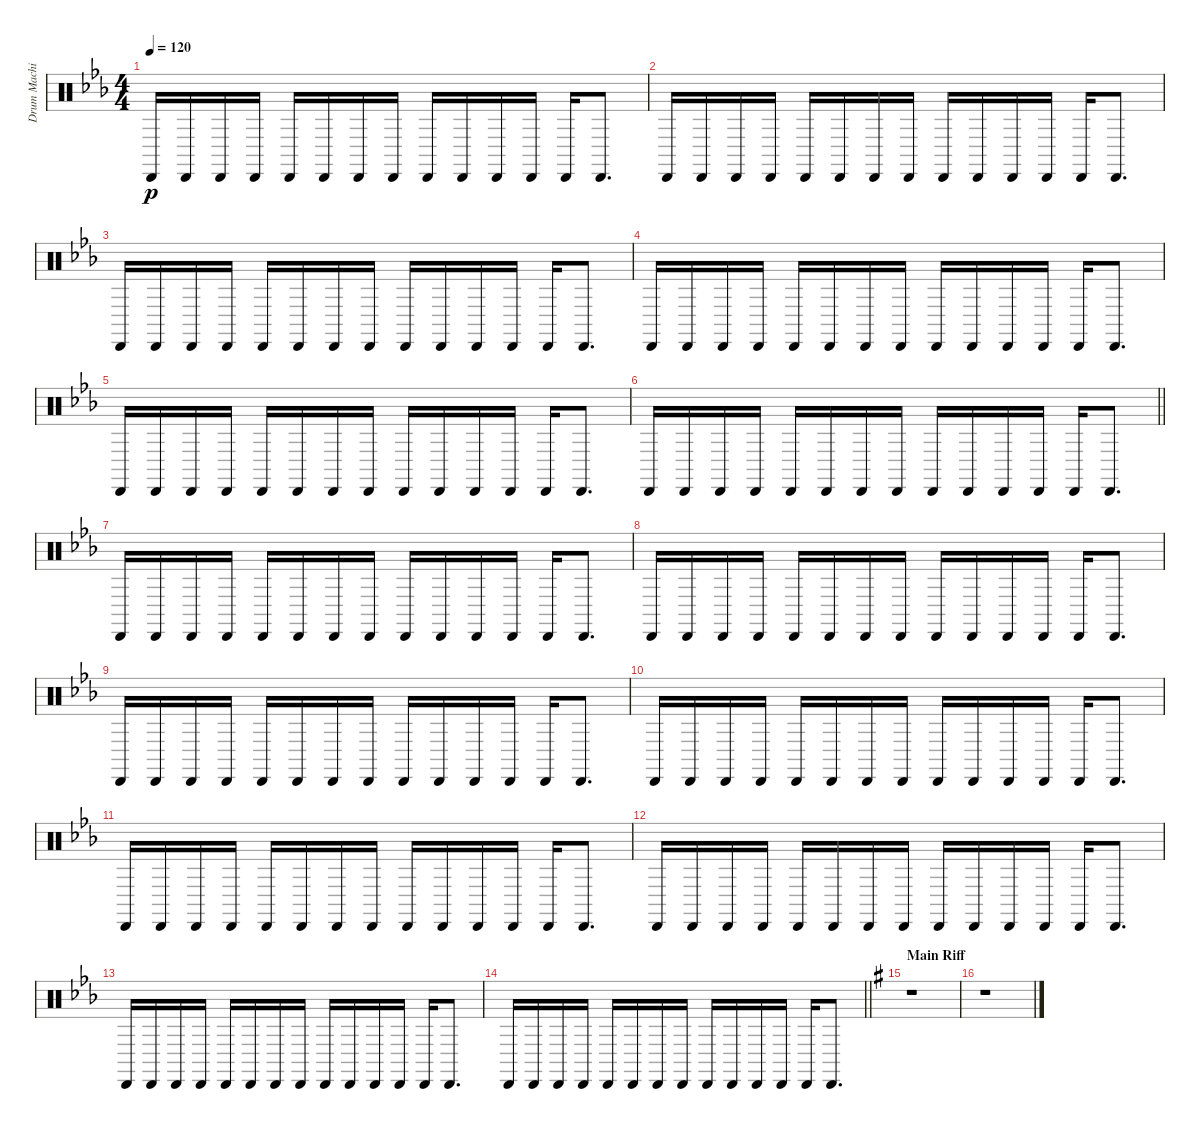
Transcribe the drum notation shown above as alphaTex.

\track ("Drum Machine" "Drum Machi") {instrument percussion}
\staff {score}
\articulation defaults
\ts (4 4)
\tempo 120
\clef neutral
\ks eb "Cabasa (hit)".16{dy p} "Cabasa (hit)".16 "Cabasa (hit)".16 "Cabasa (hit)".16 "Cabasa (hit)".16 "Cabasa (hit)".16 "Cabasa (hit)".16 "Cabasa (hit)".16 "Cabasa (hit)".16 "Cabasa (hit)".16 "Cabasa (hit)".16 "Cabasa (hit)".16 "Cabasa (hit)".16 "Cabasa (hit)".8{d}
|
"Cabasa (hit)".16 "Cabasa (hit)".16 "Cabasa (hit)".16 "Cabasa (hit)".16 "Cabasa (hit)".16 "Cabasa (hit)".16 "Cabasa (hit)".16 "Cabasa (hit)".16 "Cabasa (hit)".16 "Cabasa (hit)".16 "Cabasa (hit)".16 "Cabasa (hit)".16 "Cabasa (hit)".16 "Cabasa (hit)".8{d} |
"Cabasa (hit)".16 "Cabasa (hit)".16 "Cabasa (hit)".16 "Cabasa (hit)".16 "Cabasa (hit)".16 "Cabasa (hit)".16 "Cabasa (hit)".16 "Cabasa (hit)".16 "Cabasa (hit)".16 "Cabasa (hit)".16 "Cabasa (hit)".16 "Cabasa (hit)".16 "Cabasa (hit)".16 "Cabasa (hit)".8{d} |
"Cabasa (hit)".16 "Cabasa (hit)".16 "Cabasa (hit)".16 "Cabasa (hit)".16 "Cabasa (hit)".16 "Cabasa (hit)".16 "Cabasa (hit)".16 "Cabasa (hit)".16 "Cabasa (hit)".16 "Cabasa (hit)".16 "Cabasa (hit)".16 "Cabasa (hit)".16 "Cabasa (hit)".16 "Cabasa (hit)".8{d} |
"Cabasa (hit)".16 "Cabasa (hit)".16 "Cabasa (hit)".16 "Cabasa (hit)".16 "Cabasa (hit)".16 "Cabasa (hit)".16 "Cabasa (hit)".16 "Cabasa (hit)".16 "Cabasa (hit)".16 "Cabasa (hit)".16 "Cabasa (hit)".16 "Cabasa (hit)".16 "Cabasa (hit)".16 "Cabasa (hit)".8{d} |
\barLineRight lightlight "Cabasa (hit)".16 "Cabasa (hit)".16 "Cabasa (hit)".16 "Cabasa (hit)".16 "Cabasa (hit)".16 "Cabasa (hit)".16 "Cabasa (hit)".16 "Cabasa (hit)".16 "Cabasa (hit)".16 "Cabasa (hit)".16 "Cabasa (hit)".16 "Cabasa (hit)".16 "Cabasa (hit)".16 "Cabasa (hit)".8{d}
|
"Cabasa (hit)".16 "Cabasa (hit)".16 "Cabasa (hit)".16 "Cabasa (hit)".16 "Cabasa (hit)".16 "Cabasa (hit)".16 "Cabasa (hit)".16 "Cabasa (hit)".16 "Cabasa (hit)".16 "Cabasa (hit)".16 "Cabasa (hit)".16 "Cabasa (hit)".16 "Cabasa (hit)".16 "Cabasa (hit)".8{d} |
"Cabasa (hit)".16 "Cabasa (hit)".16 "Cabasa (hit)".16 "Cabasa (hit)".16 "Cabasa (hit)".16 "Cabasa (hit)".16 "Cabasa (hit)".16 "Cabasa (hit)".16 "Cabasa (hit)".16 "Cabasa (hit)".16 "Cabasa (hit)".16 "Cabasa (hit)".16 "Cabasa (hit)".16 "Cabasa (hit)".8{d} |
"Cabasa (hit)".16 "Cabasa (hit)".16 "Cabasa (hit)".16 "Cabasa (hit)".16 "Cabasa (hit)".16 "Cabasa (hit)".16 "Cabasa (hit)".16 "Cabasa (hit)".16 "Cabasa (hit)".16 "Cabasa (hit)".16 "Cabasa (hit)".16 "Cabasa (hit)".16 "Cabasa (hit)".16 "Cabasa (hit)".8{d} |
"Cabasa (hit)".16 "Cabasa (hit)".16 "Cabasa (hit)".16 "Cabasa (hit)".16 "Cabasa (hit)".16 "Cabasa (hit)".16 "Cabasa (hit)".16 "Cabasa (hit)".16 "Cabasa (hit)".16 "Cabasa (hit)".16 "Cabasa (hit)".16 "Cabasa (hit)".16 "Cabasa (hit)".16 "Cabasa (hit)".8{d} |
"Cabasa (hit)".16 "Cabasa (hit)".16 "Cabasa (hit)".16 "Cabasa (hit)".16 "Cabasa (hit)".16 "Cabasa (hit)".16 "Cabasa (hit)".16 "Cabasa (hit)".16 "Cabasa (hit)".16 "Cabasa (hit)".16 "Cabasa (hit)".16 "Cabasa (hit)".16 "Cabasa (hit)".16 "Cabasa (hit)".8{d} |
"Cabasa (hit)".16 "Cabasa (hit)".16 "Cabasa (hit)".16 "Cabasa (hit)".16 "Cabasa (hit)".16 "Cabasa (hit)".16 "Cabasa (hit)".16 "Cabasa (hit)".16 "Cabasa (hit)".16 "Cabasa (hit)".16 "Cabasa (hit)".16 "Cabasa (hit)".16 "Cabasa (hit)".16 "Cabasa (hit)".8{d} |
"Cabasa (hit)".16 "Cabasa (hit)".16 "Cabasa (hit)".16 "Cabasa (hit)".16 "Cabasa (hit)".16 "Cabasa (hit)".16 "Cabasa (hit)".16 "Cabasa (hit)".16 "Cabasa (hit)".16 "Cabasa (hit)".16 "Cabasa (hit)".16 "Cabasa (hit)".16 "Cabasa (hit)".16 "Cabasa (hit)".8{d} |
\barLineRight lightlight "Cabasa (hit)".16 "Cabasa (hit)".16 "Cabasa (hit)".16 "Cabasa (hit)".16 "Cabasa (hit)".16 "Cabasa (hit)".16 "Cabasa (hit)".16 "Cabasa (hit)".16 "Cabasa (hit)".16 "Cabasa (hit)".16 "Cabasa (hit)".16 "Cabasa (hit)".16 "Cabasa (hit)".16 "Cabasa (hit)".8{d}
|
\section ("" "Main Riff")
\ks g
r.1 |
r.1
